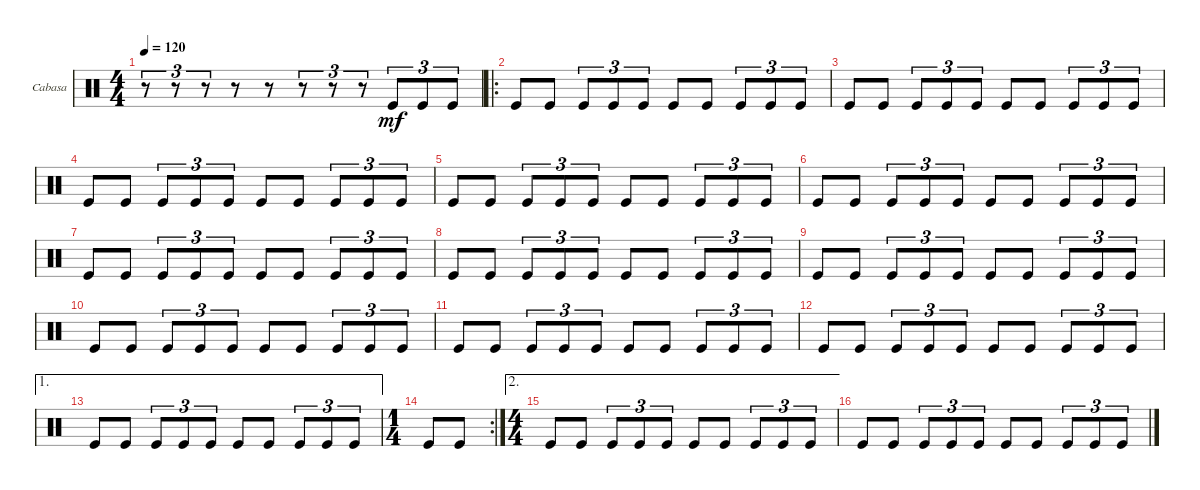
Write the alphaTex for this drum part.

\bracketExtendMode groupsimilarinstruments
\firstSystemTrackNameOrientation horizontal
\otherSystemsTrackNameOrientation horizontal
\track ("Cabasa" "Cabasa") {instrument percussion}
\staff {score}
\articulation defaults
\ts (4 4)
\tempo 120
\clef neutral
\ks c
r.8{tu (3 2) dy mf} r.8{tu (3 2)} r.8{tu (3 2)} r.8 r.8 r.8{tu (3 2)} r.8{tu (3 2)} r.8{tu (3 2)} "Kick (hit)".8{tu (3 2)} "Kick (hit)".8{tu (3 2)} "Kick (hit)".8{tu (3 2)} |
\ro "Kick (hit)".8 "Kick (hit)".8 "Kick (hit)".8{tu (3 2)} "Kick (hit)".8{tu (3 2)} "Kick (hit)".8{tu (3 2)} "Kick (hit)".8 "Kick (hit)".8 "Kick (hit)".8{tu (3 2)} "Kick (hit)".8{tu (3 2)} "Kick (hit)".8{tu (3 2)}
|
"Kick (hit)".8 "Kick (hit)".8 "Kick (hit)".8{tu (3 2)} "Kick (hit)".8{tu (3 2)} "Kick (hit)".8{tu (3 2)} "Kick (hit)".8 "Kick (hit)".8 "Kick (hit)".8{tu (3 2)} "Kick (hit)".8{tu (3 2)} "Kick (hit)".8{tu (3 2)} |
"Kick (hit)".8 "Kick (hit)".8 "Kick (hit)".8{tu (3 2)} "Kick (hit)".8{tu (3 2)} "Kick (hit)".8{tu (3 2)} "Kick (hit)".8 "Kick (hit)".8 "Kick (hit)".8{tu (3 2)} "Kick (hit)".8{tu (3 2)} "Kick (hit)".8{tu (3 2)} |
"Kick (hit)".8 "Kick (hit)".8 "Kick (hit)".8{tu (3 2)} "Kick (hit)".8{tu (3 2)} "Kick (hit)".8{tu (3 2)} "Kick (hit)".8 "Kick (hit)".8 "Kick (hit)".8{tu (3 2)} "Kick (hit)".8{tu (3 2)} "Kick (hit)".8{tu (3 2)} |
"Kick (hit)".8 "Kick (hit)".8 "Kick (hit)".8{tu (3 2)} "Kick (hit)".8{tu (3 2)} "Kick (hit)".8{tu (3 2)} "Kick (hit)".8 "Kick (hit)".8 "Kick (hit)".8{tu (3 2)} "Kick (hit)".8{tu (3 2)} "Kick (hit)".8{tu (3 2)} |
"Kick (hit)".8 "Kick (hit)".8 "Kick (hit)".8{tu (3 2)} "Kick (hit)".8{tu (3 2)} "Kick (hit)".8{tu (3 2)} "Kick (hit)".8 "Kick (hit)".8 "Kick (hit)".8{tu (3 2)} "Kick (hit)".8{tu (3 2)} "Kick (hit)".8{tu (3 2)} |
"Kick (hit)".8 "Kick (hit)".8 "Kick (hit)".8{tu (3 2)} "Kick (hit)".8{tu (3 2)} "Kick (hit)".8{tu (3 2)} "Kick (hit)".8 "Kick (hit)".8 "Kick (hit)".8{tu (3 2)} "Kick (hit)".8{tu (3 2)} "Kick (hit)".8{tu (3 2)} |
"Kick (hit)".8 "Kick (hit)".8 "Kick (hit)".8{tu (3 2)} "Kick (hit)".8{tu (3 2)} "Kick (hit)".8{tu (3 2)} "Kick (hit)".8 "Kick (hit)".8 "Kick (hit)".8{tu (3 2)} "Kick (hit)".8{tu (3 2)} "Kick (hit)".8{tu (3 2)} |
"Kick (hit)".8 "Kick (hit)".8 "Kick (hit)".8{tu (3 2)} "Kick (hit)".8{tu (3 2)} "Kick (hit)".8{tu (3 2)} "Kick (hit)".8 "Kick (hit)".8 "Kick (hit)".8{tu (3 2)} "Kick (hit)".8{tu (3 2)} "Kick (hit)".8{tu (3 2)} |
"Kick (hit)".8 "Kick (hit)".8 "Kick (hit)".8{tu (3 2)} "Kick (hit)".8{tu (3 2)} "Kick (hit)".8{tu (3 2)} "Kick (hit)".8 "Kick (hit)".8 "Kick (hit)".8{tu (3 2)} "Kick (hit)".8{tu (3 2)} "Kick (hit)".8{tu (3 2)} |
"Kick (hit)".8 "Kick (hit)".8 "Kick (hit)".8{tu (3 2)} "Kick (hit)".8{tu (3 2)} "Kick (hit)".8{tu (3 2)} "Kick (hit)".8 "Kick (hit)".8 "Kick (hit)".8{tu (3 2)} "Kick (hit)".8{tu (3 2)} "Kick (hit)".8{tu (3 2)} |
\ae 1 "Kick (hit)".8 "Kick (hit)".8 "Kick (hit)".8{tu (3 2)} "Kick (hit)".8{tu (3 2)} "Kick (hit)".8{tu (3 2)} "Kick (hit)".8 "Kick (hit)".8 "Kick (hit)".8{tu (3 2)} "Kick (hit)".8{tu (3 2)} "Kick (hit)".8{tu (3 2)}
|
\rc 2
\ts (1 4)
"Kick (hit)".8 "Kick (hit)".8 |
\ae 2
\ts (4 4)
"Kick (hit)".8 "Kick (hit)".8 "Kick (hit)".8{tu (3 2)} "Kick (hit)".8{tu (3 2)} "Kick (hit)".8{tu (3 2)} "Kick (hit)".8 "Kick (hit)".8 "Kick (hit)".8{tu (3 2)} "Kick (hit)".8{tu (3 2)} "Kick (hit)".8{tu (3 2)} |
"Kick (hit)".8 "Kick (hit)".8 "Kick (hit)".8{tu (3 2)} "Kick (hit)".8{tu (3 2)} "Kick (hit)".8{tu (3 2)} "Kick (hit)".8 "Kick (hit)".8 "Kick (hit)".8{tu (3 2)} "Kick (hit)".8{tu (3 2)} "Kick (hit)".8{tu (3 2)}
